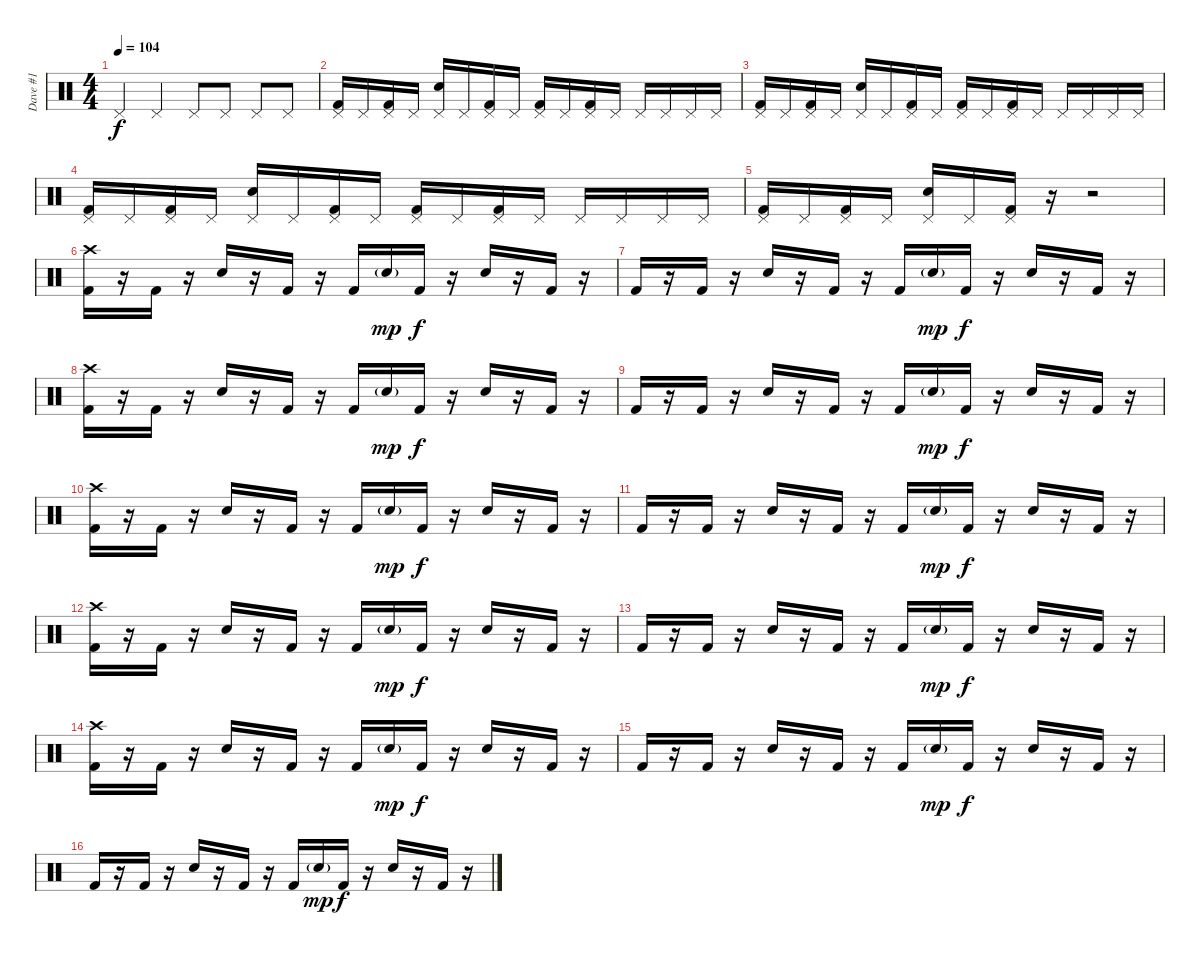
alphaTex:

\track ("Dave #1" "Dave #1") {instrument percussion}
\staff {score}
\articulation defaults
\ts (4 4)
\tempo 104
\clef neutral
\ks c "Pedal Hi-Hat (hit)".4{dy f} "Pedal Hi-Hat (hit)".4 "Pedal Hi-Hat (hit)".8 "Pedal Hi-Hat (hit)".8 "Pedal Hi-Hat (hit)".8 "Pedal Hi-Hat (hit)".8
|
("Pedal Hi-Hat (hit)" "Kick (hit) 2").16 "Pedal Hi-Hat (hit)".16 ("Pedal Hi-Hat (hit)" "Kick (hit) 2").16 "Pedal Hi-Hat (hit)".16 ("Pedal Hi-Hat (hit)" "Snare (hit) 2").16 "Pedal Hi-Hat (hit)".16 ("Pedal Hi-Hat (hit)" "Kick (hit) 2").16 "Pedal Hi-Hat (hit)".16 ("Pedal Hi-Hat (hit)" "Kick (hit) 2").16 "Pedal Hi-Hat (hit)".16 ("Pedal Hi-Hat (hit)" "Kick (hit) 2").16 "Pedal Hi-Hat (hit)".16 "Pedal Hi-Hat (hit)".16 "Pedal Hi-Hat (hit)".16 "Pedal Hi-Hat (hit)".16 "Pedal Hi-Hat (hit)".16 |
("Pedal Hi-Hat (hit)" "Kick (hit) 2").16 "Pedal Hi-Hat (hit)".16 ("Pedal Hi-Hat (hit)" "Kick (hit) 2").16 "Pedal Hi-Hat (hit)".16 ("Pedal Hi-Hat (hit)" "Snare (hit) 2").16 "Pedal Hi-Hat (hit)".16 ("Pedal Hi-Hat (hit)" "Kick (hit) 2").16 "Pedal Hi-Hat (hit)".16 ("Pedal Hi-Hat (hit)" "Kick (hit) 2").16 "Pedal Hi-Hat (hit)".16 ("Pedal Hi-Hat (hit)" "Kick (hit) 2").16 "Pedal Hi-Hat (hit)".16 "Pedal Hi-Hat (hit)".16 "Pedal Hi-Hat (hit)".16 "Pedal Hi-Hat (hit)".16 "Pedal Hi-Hat (hit)".16 |
("Pedal Hi-Hat (hit)" "Kick (hit) 2").16 "Pedal Hi-Hat (hit)".16 ("Pedal Hi-Hat (hit)" "Kick (hit) 2").16 "Pedal Hi-Hat (hit)".16 ("Pedal Hi-Hat (hit)" "Snare (hit) 2").16 "Pedal Hi-Hat (hit)".16 ("Pedal Hi-Hat (hit)" "Kick (hit) 2").16 "Pedal Hi-Hat (hit)".16 ("Pedal Hi-Hat (hit)" "Kick (hit) 2").16 "Pedal Hi-Hat (hit)".16 ("Pedal Hi-Hat (hit)" "Kick (hit) 2").16 "Pedal Hi-Hat (hit)".16 "Pedal Hi-Hat (hit)".16 "Pedal Hi-Hat (hit)".16 "Pedal Hi-Hat (hit)".16 "Pedal Hi-Hat (hit)".16 |
("Pedal Hi-Hat (hit)" "Kick (hit) 2").16 "Pedal Hi-Hat (hit)".16 ("Pedal Hi-Hat (hit)" "Kick (hit) 2").16 "Pedal Hi-Hat (hit)".16 ("Pedal Hi-Hat (hit)" "Snare (hit) 2").16 "Pedal Hi-Hat (hit)".16 ("Pedal Hi-Hat (hit)" "Kick (hit) 2").16 r.16 r.2 |
("Crash high (hit)" "Kick (hit) 2").16 r.16 "Kick (hit) 2".16 r.16 "Snare (hit) 2".16 r.16 "Kick (hit) 2".16 r.16 "Kick (hit) 2".16 "Snare (hit) 2"{g}.16{dy mp} "Kick (hit) 2".16{dy f} r.16 "Snare (hit) 2".16 r.16 "Kick (hit) 2".16 r.16 |
"Kick (hit) 2".16 r.16 "Kick (hit) 2".16 r.16 "Snare (hit) 2".16 r.16 "Kick (hit) 2".16 r.16 "Kick (hit) 2".16 "Snare (hit) 2"{g}.16{dy mp} "Kick (hit) 2".16{dy f} r.16 "Snare (hit) 2".16 r.16 "Kick (hit) 2".16 r.16 |
("Crash high (hit)" "Kick (hit) 2").16 r.16 "Kick (hit) 2".16 r.16 "Snare (hit) 2".16 r.16 "Kick (hit) 2".16 r.16 "Kick (hit) 2".16 "Snare (hit) 2"{g}.16{dy mp} "Kick (hit) 2".16{dy f} r.16 "Snare (hit) 2".16 r.16 "Kick (hit) 2".16 r.16 |
"Kick (hit) 2".16 r.16 "Kick (hit) 2".16 r.16 "Snare (hit) 2".16 r.16 "Kick (hit) 2".16 r.16 "Kick (hit) 2".16 "Snare (hit) 2"{g}.16{dy mp} "Kick (hit) 2".16{dy f} r.16 "Snare (hit) 2".16 r.16 "Kick (hit) 2".16 r.16 |
("Crash high (hit)" "Kick (hit) 2").16 r.16 "Kick (hit) 2".16 r.16 "Snare (hit) 2".16 r.16 "Kick (hit) 2".16 r.16 "Kick (hit) 2".16 "Snare (hit) 2"{g}.16{dy mp} "Kick (hit) 2".16{dy f} r.16 "Snare (hit) 2".16 r.16 "Kick (hit) 2".16 r.16 |
"Kick (hit) 2".16 r.16 "Kick (hit) 2".16 r.16 "Snare (hit) 2".16 r.16 "Kick (hit) 2".16 r.16 "Kick (hit) 2".16 "Snare (hit) 2"{g}.16{dy mp} "Kick (hit) 2".16{dy f} r.16 "Snare (hit) 2".16 r.16 "Kick (hit) 2".16 r.16 |
("Crash high (hit)" "Kick (hit) 2").16 r.16 "Kick (hit) 2".16 r.16 "Snare (hit) 2".16 r.16 "Kick (hit) 2".16 r.16 "Kick (hit) 2".16 "Snare (hit) 2"{g}.16{dy mp} "Kick (hit) 2".16{dy f} r.16 "Snare (hit) 2".16 r.16 "Kick (hit) 2".16 r.16 |
"Kick (hit) 2".16 r.16 "Kick (hit) 2".16 r.16 "Snare (hit) 2".16 r.16 "Kick (hit) 2".16 r.16 "Kick (hit) 2".16 "Snare (hit) 2"{g}.16{dy mp} "Kick (hit) 2".16{dy f} r.16 "Snare (hit) 2".16 r.16 "Kick (hit) 2".16 r.16 |
("Crash high (hit)" "Kick (hit) 2").16 r.16 "Kick (hit) 2".16 r.16 "Snare (hit) 2".16 r.16 "Kick (hit) 2".16 r.16 "Kick (hit) 2".16 "Snare (hit) 2"{g}.16{dy mp} "Kick (hit) 2".16{dy f} r.16 "Snare (hit) 2".16 r.16 "Kick (hit) 2".16 r.16 |
"Kick (hit) 2".16 r.16 "Kick (hit) 2".16 r.16 "Snare (hit) 2".16 r.16 "Kick (hit) 2".16 r.16 "Kick (hit) 2".16 "Snare (hit) 2"{g}.16{dy mp} "Kick (hit) 2".16{dy f} r.16 "Snare (hit) 2".16 r.16 "Kick (hit) 2".16 r.16 |
"Kick (hit) 2".16 r.16 "Kick (hit) 2".16 r.16 "Snare (hit) 2".16 r.16 "Kick (hit) 2".16 r.16 "Kick (hit) 2".16 "Snare (hit) 2"{g}.16{dy mp} "Kick (hit) 2".16{dy f} r.16 "Snare (hit) 2".16 r.16 "Kick (hit) 2".16 r.16
